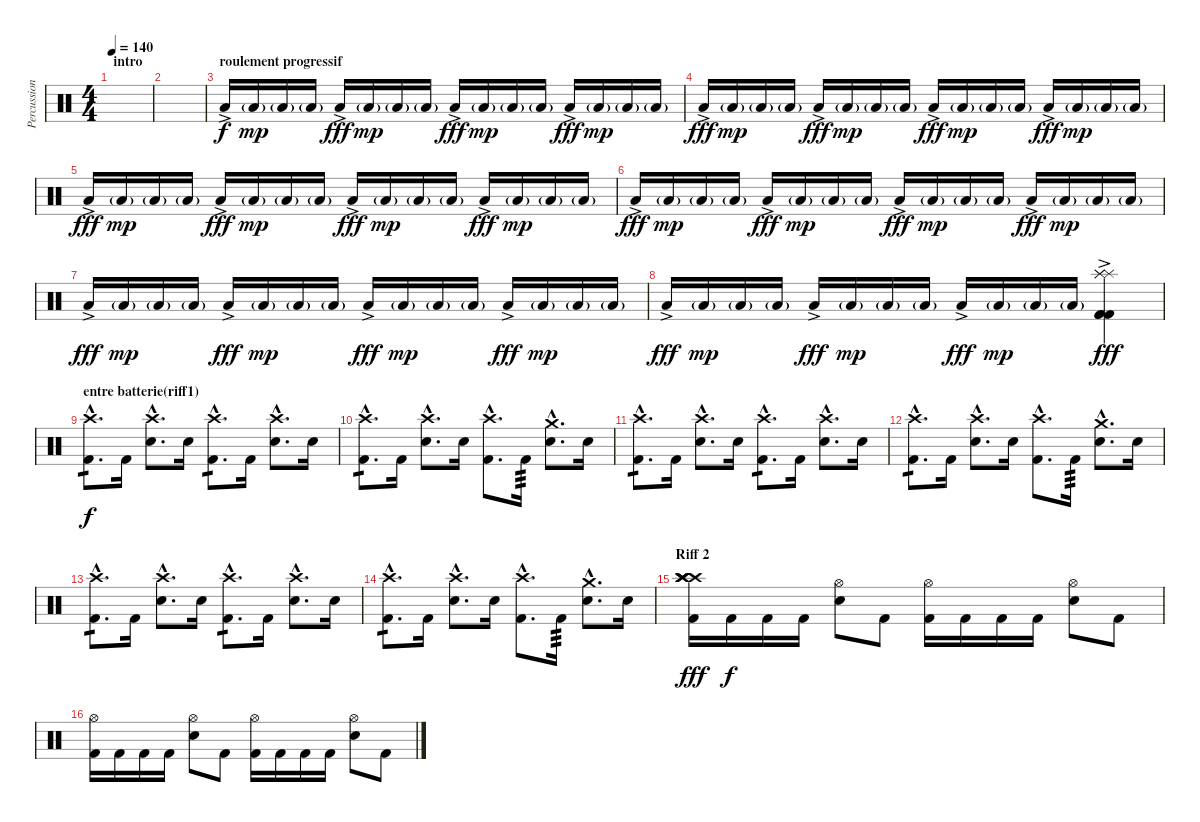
\track ("Percussions" "Percussion") {instrument percussion}
\staff {score}
\articulation defaults
\ts (4 4)
\section ("" "intro")
\tempo 140
\clef neutral
\ks c
|
|
\section ("" "roulement progressif")
"Low Tom (hit)"{ac}.16{volume 16} "Low Tom (hit)"{g}.16{dy mp} "Low Tom (hit)"{g}.16 "Low Tom (hit)"{g}.16 "Low Tom (hit)"{ac}.16{dy fff} "Low Tom (hit)"{g}.16{dy mp} "Low Tom (hit)"{g}.16 "Low Tom (hit)"{g}.16 "Low Tom (hit)"{ac}.16{dy fff} "Low Tom (hit)"{g}.16{dy mp} "Low Tom (hit)"{g}.16 "Low Tom (hit)"{g}.16 "Low Tom (hit)"{ac}.16{dy fff} "Low Tom (hit)"{g}.16{dy mp} "Low Tom (hit)"{g}.16 "Low Tom (hit)"{g}.16 |
"Low Tom (hit)"{ac}.16{dy fff} "Low Tom (hit)"{g}.16{dy mp} "Low Tom (hit)"{g}.16 "Low Tom (hit)"{g}.16 "Low Tom (hit)"{ac}.16{dy fff} "Low Tom (hit)"{g}.16{dy mp} "Low Tom (hit)"{g}.16 "Low Tom (hit)"{g}.16 "Low Tom (hit)"{ac}.16{dy fff} "Low Tom (hit)"{g}.16{dy mp} "Low Tom (hit)"{g}.16 "Low Tom (hit)"{g}.16 "Low Tom (hit)"{ac}.16{dy fff} "Low Tom (hit)"{g}.16{dy mp} "Low Tom (hit)"{g}.16 "Low Tom (hit)"{g}.16 |
"Low Tom (hit)"{ac}.16{dy fff} "Low Tom (hit)"{g}.16{dy mp} "Low Tom (hit)"{g}.16 "Low Tom (hit)"{g}.16 "Low Tom (hit)"{ac}.16{dy fff} "Low Tom (hit)"{g}.16{dy mp} "Low Tom (hit)"{g}.16 "Low Tom (hit)"{g}.16 "Low Tom (hit)"{ac}.16{dy fff} "Low Tom (hit)"{g}.16{dy mp} "Low Tom (hit)"{g}.16 "Low Tom (hit)"{g}.16 "Low Tom (hit)"{ac}.16{dy fff} "Low Tom (hit)"{g}.16{dy mp} "Low Tom (hit)"{g}.16 "Low Tom (hit)"{g}.16 |
"Low Tom (hit)"{ac}.16{dy fff} "Low Tom (hit)"{g}.16{dy mp} "Low Tom (hit)"{g}.16 "Low Tom (hit)"{g}.16 "Low Tom (hit)"{ac}.16{dy fff} "Low Tom (hit)"{g}.16{dy mp} "Low Tom (hit)"{g}.16 "Low Tom (hit)"{g}.16 "Low Tom (hit)"{ac}.16{dy fff} "Low Tom (hit)"{g}.16{dy mp} "Low Tom (hit)"{g}.16 "Low Tom (hit)"{g}.16 "Low Tom (hit)"{ac}.16{dy fff} "Low Tom (hit)"{g}.16{dy mp} "Low Tom (hit)"{g}.16 "Low Tom (hit)"{g}.16 |
"Low Tom (hit)"{ac}.16{dy fff} "Low Tom (hit)"{g}.16{dy mp} "Low Tom (hit)"{g}.16 "Low Tom (hit)"{g}.16 "Low Tom (hit)"{ac}.16{dy fff} "Low Tom (hit)"{g}.16{dy mp} "Low Tom (hit)"{g}.16 "Low Tom (hit)"{g}.16 "Low Tom (hit)"{ac}.16{dy fff} "Low Tom (hit)"{g}.16{dy mp} "Low Tom (hit)"{g}.16 "Low Tom (hit)"{g}.16 "Low Tom (hit)"{ac}.16{dy fff} "Low Tom (hit)"{g}.16{dy mp} "Low Tom (hit)"{g}.16 "Low Tom (hit)"{g}.16 |
"Low Tom (hit)"{ac}.16{dy fff} "Low Tom (hit)"{g}.16{dy mp} "Low Tom (hit)"{g}.16 "Low Tom (hit)"{g}.16 "Low Tom (hit)"{ac}.16{dy fff} "Low Tom (hit)"{g}.16{dy mp} "Low Tom (hit)"{g}.16 "Low Tom (hit)"{g}.16 "Low Tom (hit)"{ac}.16{dy fff} "Low Tom (hit)"{g}.16{dy mp} "Low Tom (hit)"{g}.16 "Low Tom (hit)"{g}.16 ("Splash (hit)" "Splash (hit)" "Splash (hit)" "Kick (hit) 2"{ac} "Kick (hit) 2" "Kick (hit) 2").4{dy fff} |
\section ("" "entre batterie(riff1)")
("Crash high (hit)"{hac} "Kick (hit) 2"{hac}).8{d tp 1 dy f} "Kick (hit) 2".16{volume 16} ("Crash high (hit)"{hac} "Snare (hit) 2"{hac}).8{d} "Snare (hit) 2".16 ("Crash high (hit)"{hac} "Kick (hit) 2"{hac}).8{d tp 1} "Kick (hit) 2".16 ("Crash high (hit)"{hac} "Snare (hit) 2"{hac}).8{d} "Snare (hit) 2".16 |
("Crash high (hit)"{hac} "Kick (hit) 2"{hac}).8{d tp 1} "Kick (hit) 2".16 ("Crash high (hit)"{hac} "Snare (hit) 2"{hac}).8{d} "Snare (hit) 2".16 ("Crash high (hit)"{hac} "Kick (hit) 2").8{d} "Kick (hit) 2".16{tp 3} ("Crash medium (hit)"{hac} "Snare (hit) 2"{hac}).8{d} "Snare (hit) 2".16 |
("Crash high (hit)"{hac} "Kick (hit) 2"{hac}).8{d tp 1} "Kick (hit) 2".16 ("Crash high (hit)"{hac} "Snare (hit) 2"{hac}).8{d} "Snare (hit) 2".16 ("Crash high (hit)"{hac} "Kick (hit) 2"{hac}).8{d tp 1} "Kick (hit) 2".16 ("Crash high (hit)"{hac} "Snare (hit) 2"{hac}).8{d} "Snare (hit) 2".16 |
("Crash high (hit)"{hac} "Kick (hit) 2"{hac}).8{d tp 1} "Kick (hit) 2".16 ("Crash high (hit)"{hac} "Snare (hit) 2"{hac}).8{d} "Snare (hit) 2".16 ("Crash high (hit)"{hac} "Kick (hit) 2").8{d} "Kick (hit) 2".16{tp 3} ("Crash medium (hit)"{hac} "Snare (hit) 2"{hac}).8{d} "Snare (hit) 2".16 |
("Crash high (hit)"{hac} "Kick (hit) 2"{hac}).8{d tp 1} "Kick (hit) 2".16 ("Crash high (hit)"{hac} "Snare (hit) 2"{hac}).8{d} "Snare (hit) 2".16 ("Crash high (hit)"{hac} "Kick (hit) 2"{hac}).8{d tp 1} "Kick (hit) 2".16 ("Crash high (hit)"{hac} "Snare (hit) 2"{hac}).8{d} "Snare (hit) 2".16 |
("Crash high (hit)"{hac} "Kick (hit) 2"{hac}).8{d tp 1} "Kick (hit) 2".16 ("Crash high (hit)"{hac} "Snare (hit) 2"{hac}).8{d} "Snare (hit) 2".16 ("Crash high (hit)"{hac} "Kick (hit) 2").8{d} "Kick (hit) 2".16{tp 3} ("Crash medium (hit)"{hac} "Snare (hit) 2"{hac}).8{d} "Snare (hit) 2".16 |
\section ("" "Riff 2")
("Crash high (hit)" "Crash high (hit)" "Crash high (hit)" "Crash high (hit)" "Crash high (hit)" "Kick (hit) 2").16{dy fff} "Kick (hit) 2".16{dy f} "Kick (hit) 2".16 "Kick (hit) 2".16 ("Hi-Hat (open)" "Snare (hit) 2").8 "Kick (hit) 2".8 ("Hi-Hat (open)" "Kick (hit) 2").16 "Kick (hit) 2".16 "Kick (hit) 2".16 "Kick (hit) 2".16 ("Hi-Hat (open)" "Snare (hit) 2").8 "Kick (hit) 2".8 |
("Hi-Hat (open)" "Kick (hit) 2").16 "Kick (hit) 2".16 "Kick (hit) 2".16 "Kick (hit) 2".16 ("Hi-Hat (open)" "Snare (hit) 2").8 "Kick (hit) 2".8 ("Hi-Hat (open)" "Kick (hit) 2").16 "Kick (hit) 2".16 "Kick (hit) 2".16 "Kick (hit) 2".16 ("Hi-Hat (open)" "Snare (hit) 2").8 "Kick (hit) 2".8
